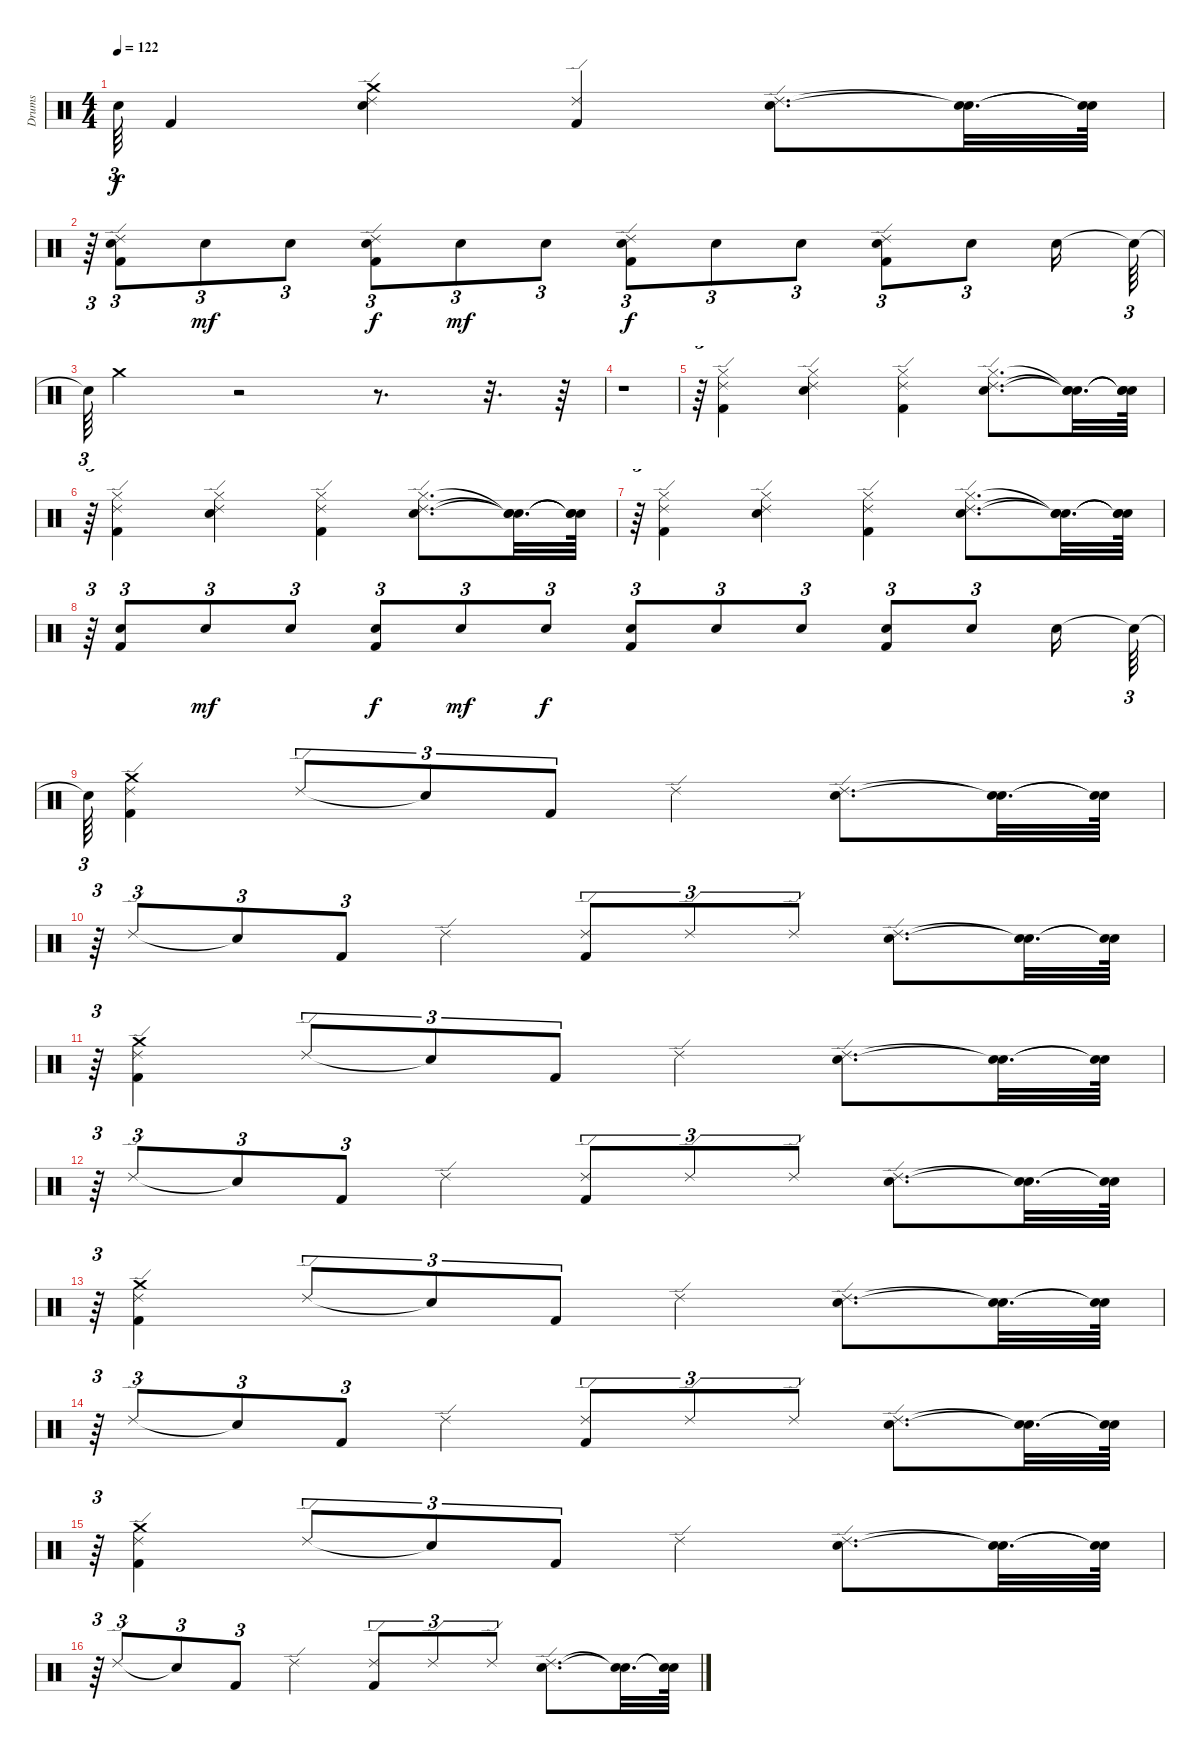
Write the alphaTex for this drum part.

\track ("Drums" "Drums") {instrument percussion}
\staff {score}
\articulation defaults
\ts (4 4)
\tempo 122
\clef neutral
\ks c "Snare (hit)"{t}.64{tu (3 2) dy f} "Kick (hit) 2".4
("Ride (edge) 2" "Crash medium (hit)" "Snare (hit) 2").4 ("Ride (edge) 2" "Kick (hit) 2").4 ("Ride (edge) 2" "Snare (hit) 2").8{d} ("Snare (hit)"{t} "Snare (hit)"{t}).32{d} ("Snare (hit)"{t} "Snare (hit)"{t}).64 |
r.64{tu (3 2)} ("Snare (hit) 2" "Ride (edge) 2" "Kick (hit) 2").8{tu (3 2)} "Snare (hit) 2".8{tu (3 2) dy mf} "Snare (hit) 2".8{tu (3 2)} ("Snare (hit) 2" "Ride (edge) 2" "Kick (hit) 2").8{tu (3 2) dy f} "Snare (hit) 2".8{tu (3 2) dy mf} "Snare (hit) 2".8{tu (3 2)} ("Snare (hit) 2" "Ride (edge) 2" "Kick (hit) 2").8{tu (3 2) dy f} "Snare (hit) 2".8{tu (3 2)} "Snare (hit) 2".8{tu (3 2)} ("Snare (hit) 2" "Ride (edge) 2" "Kick (hit) 2").8{tu (3 2)} "Snare (hit) 2".8{tu (3 2)} "Snare (hit) 2".16 "Snare (hit)"{t}.64{tu (3 2)} |
"Snare (hit)"{t}.64{tu (3 2)} "Crash medium (hit)".4 r.2 r.8{d} r.32{d} r.64 |
r.1 |
r.64{tu (3 2)} ("Hi-Hat (closed)" "Ride (edge) 2" "Kick (hit) 2").4 ("Hi-Hat (closed)" "Ride (edge) 2" "Snare (hit) 2").4 ("Hi-Hat (closed)" "Ride (edge) 2" "Kick (hit) 2").4 ("Hi-Hat (closed)" "Ride (edge) 2" "Snare (hit) 2").8{d} ("Snare (hit)"{t} "Snare (hit)"{t} "Snare (hit)"{t}).32{d} ("Snare (hit)"{t} "Snare (hit)"{t} "Snare (hit)"{t}).64 |
r.64{tu (3 2)} ("Hi-Hat (closed)" "Ride (edge) 2" "Kick (hit) 2").4 ("Hi-Hat (closed)" "Ride (edge) 2" "Snare (hit) 2").4 ("Hi-Hat (closed)" "Ride (edge) 2" "Kick (hit) 2").4 ("Hi-Hat (closed)" "Ride (edge) 2" "Snare (hit) 2").8{d} ("Snare (hit)"{t} "Snare (hit)"{t} "Snare (hit)"{t}).32{d} ("Snare (hit)"{t} "Snare (hit)"{t} "Snare (hit)"{t}).64 |
r.64{tu (3 2)} ("Ride (edge) 2" "Hi-Hat (closed)" "Kick (hit) 2").4 ("Ride (edge) 2" "Hi-Hat (closed)" "Snare (hit) 2").4 ("Ride (edge) 2" "Hi-Hat (closed)" "Kick (hit) 2").4 ("Ride (edge) 2" "Hi-Hat (closed)" "Snare (hit) 2").8{d} ("Snare (hit)"{t} "Snare (hit)"{t} "Snare (hit)"{t}).32{d} ("Snare (hit)"{t} "Snare (hit)"{t} "Snare (hit)"{t}).64 |
r.64{tu (3 2)} ("Snare (hit) 2" "Kick (hit) 2").8{tu (3 2)} "Snare (hit) 2".8{tu (3 2) dy mf} "Snare (hit) 2".8{tu (3 2)} ("Snare (hit) 2" "Kick (hit) 2").8{tu (3 2) dy f} "Snare (hit) 2".8{tu (3 2) dy mf} "Snare (hit) 2".8{tu (3 2) dy f} ("Snare (hit) 2" "Kick (hit) 2").8{tu (3 2)} "Snare (hit) 2".8{tu (3 2)} "Snare (hit) 2".8{tu (3 2)} ("Snare (hit) 2" "Kick (hit) 2").8{tu (3 2)} "Snare (hit) 2".8{tu (3 2)} "Snare (hit) 2".16 "Snare (hit)"{t}.64{tu (3 2)} |
"Snare (hit)"{t}.64{tu (3 2)} ("Crash medium (hit)" "Kick (hit) 2" "Ride (edge) 2").4 "Ride (edge) 2".8{tu (3 2)} "Snare (hit)"{t}.8{tu (3 2)} "Kick (hit) 2".8{tu (3 2)} "Ride (edge) 2".4 ("Snare (hit) 2" "Ride (edge) 2").8{d} ("Snare (hit)"{t} "Snare (hit)"{t}).32{d} ("Snare (hit)"{t} "Snare (hit)"{t}).64 |
r.64{tu (3 2)} "Ride (edge) 2".8{tu (3 2)} "Snare (hit)"{t}.8{tu (3 2)} "Kick (hit) 2".8{tu (3 2)} "Ride (edge) 2".4 ("Kick (hit) 2" "Ride (edge) 2").8{tu (3 2)} "Ride (edge) 2".8{tu (3 2)} "Ride (edge) 2".8{tu (3 2)} ("Snare (hit) 2" "Ride (edge) 2").8{d} ("Snare (hit)"{t} "Snare (hit)"{t}).32{d} ("Snare (hit)"{t} "Snare (hit)"{t}).64 |
r.64{tu (3 2)} ("Crash medium (hit)" "Kick (hit) 2" "Ride (edge) 2").4 "Ride (edge) 2".8{tu (3 2)} "Snare (hit)"{t}.8{tu (3 2)} "Kick (hit) 2".8{tu (3 2)} "Ride (edge) 2".4 ("Snare (hit) 2" "Ride (edge) 2").8{d} ("Snare (hit)"{t} "Snare (hit)"{t}).32{d} ("Snare (hit)"{t} "Snare (hit)"{t}).64 |
r.64{tu (3 2)} "Ride (edge) 2".8{tu (3 2)} "Snare (hit)"{t}.8{tu (3 2)} "Kick (hit) 2".8{tu (3 2)} "Ride (edge) 2".4 ("Kick (hit) 2" "Ride (edge) 2").8{tu (3 2)} "Ride (edge) 2".8{tu (3 2)} "Ride (edge) 2".8{tu (3 2)} ("Snare (hit) 2" "Ride (edge) 2").8{d} ("Snare (hit)"{t} "Snare (hit)"{t}).32{d} ("Snare (hit)"{t} "Snare (hit)"{t}).64 |
r.64{tu (3 2)} ("Kick (hit) 2" "Ride (edge) 2" "Crash medium (hit)").4 "Ride (edge) 2".8{tu (3 2)} "Snare (hit)"{t}.8{tu (3 2)} "Kick (hit) 2".8{tu (3 2)} "Ride (edge) 2".4 ("Snare (hit) 2" "Ride (edge) 2").8{d} ("Snare (hit)"{t} "Snare (hit)"{t}).32{d} ("Snare (hit)"{t} "Snare (hit)"{t}).64 |
r.64{tu (3 2)} "Ride (edge) 2".8{tu (3 2)} "Snare (hit)"{t}.8{tu (3 2)} "Kick (hit) 2".8{tu (3 2)} "Ride (edge) 2".4 ("Kick (hit) 2" "Ride (edge) 2").8{tu (3 2)} "Ride (edge) 2".8{tu (3 2)} "Ride (edge) 2".8{tu (3 2)} ("Snare (hit) 2" "Ride (edge) 2").8{d} ("Snare (hit)"{t} "Snare (hit)"{t}).32{d} ("Snare (hit)"{t} "Snare (hit)"{t}).64 |
r.64{tu (3 2)} ("Kick (hit) 2" "Ride (edge) 2" "Crash medium (hit)").4 "Ride (edge) 2".8{tu (3 2)} "Snare (hit)"{t}.8{tu (3 2)} "Kick (hit) 2".8{tu (3 2)} "Ride (edge) 2".4 ("Snare (hit) 2" "Ride (edge) 2").8{d} ("Snare (hit)"{t} "Snare (hit)"{t}).32{d} ("Snare (hit)"{t} "Snare (hit)"{t}).64 |
r.64{tu (3 2)} "Ride (edge) 2".8{tu (3 2)} "Snare (hit)"{t}.8{tu (3 2)} "Kick (hit) 2".8{tu (3 2)} "Ride (edge) 2".4 ("Kick (hit) 2" "Ride (edge) 2").8{tu (3 2)} "Ride (edge) 2".8{tu (3 2)} "Ride (edge) 2".8{tu (3 2)} ("Snare (hit) 2" "Ride (edge) 2").8{d} ("Snare (hit)"{t} "Snare (hit)"{t}).32{d} ("Snare (hit)"{t} "Snare (hit)"{t}).64
